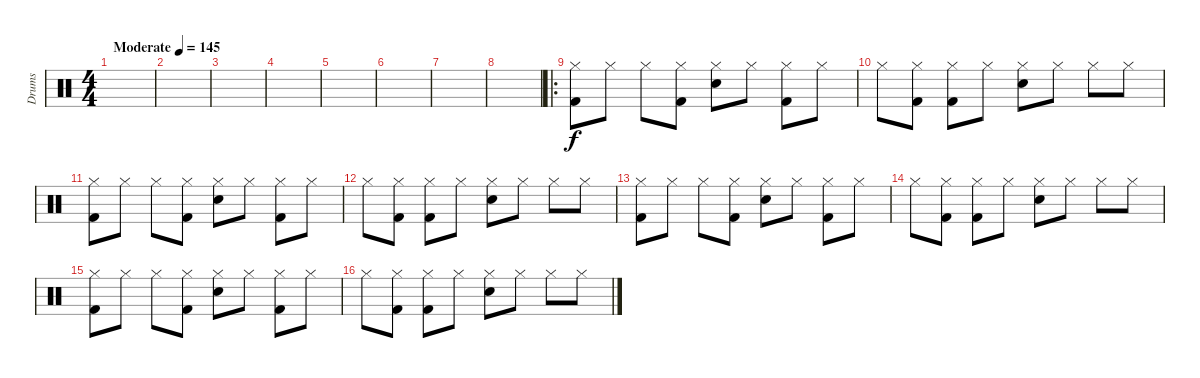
\track ("Drums" "Drums") {instrument percussion}
\staff {score}
\articulation defaults
\ts (4 4)
\tempo (145 "Moderate")
\clef neutral
\ks c
|
|
|
|
|
|
|
|
\ro
("Kick (hit) 2" "Hi-Hat (closed)").8 "Hi-Hat (closed)".8 "Hi-Hat (closed)".8 ("Kick (hit) 2" "Hi-Hat (closed)").8 ("Electric Snare (hit)" "Hi-Hat (closed)").8 "Hi-Hat (closed)".8 ("Kick (hit) 2" "Hi-Hat (closed)").8 "Hi-Hat (closed)".8 |
"Hi-Hat (closed)".8 ("Kick (hit) 2" "Hi-Hat (closed)").8 ("Kick (hit) 2" "Hi-Hat (closed)").8 "Hi-Hat (closed)".8 ("Electric Snare (hit)" "Hi-Hat (closed)").8 "Hi-Hat (closed)".8 "Hi-Hat (closed)".8 "Hi-Hat (closed)".8 |
("Kick (hit) 2" "Hi-Hat (closed)").8 "Hi-Hat (closed)".8 "Hi-Hat (closed)".8 ("Kick (hit) 2" "Hi-Hat (closed)").8 ("Electric Snare (hit)" "Hi-Hat (closed)").8 "Hi-Hat (closed)".8 ("Kick (hit) 2" "Hi-Hat (closed)").8 "Hi-Hat (closed)".8 |
"Hi-Hat (closed)".8 ("Kick (hit) 2" "Hi-Hat (closed)").8 ("Kick (hit) 2" "Hi-Hat (closed)").8 "Hi-Hat (closed)".8 ("Electric Snare (hit)" "Hi-Hat (closed)").8 "Hi-Hat (closed)".8 "Hi-Hat (closed)".8 "Hi-Hat (closed)".8 |
("Kick (hit) 2" "Hi-Hat (closed)").8 "Hi-Hat (closed)".8 "Hi-Hat (closed)".8 ("Kick (hit) 2" "Hi-Hat (closed)").8 ("Electric Snare (hit)" "Hi-Hat (closed)").8 "Hi-Hat (closed)".8 ("Kick (hit) 2" "Hi-Hat (closed)").8 "Hi-Hat (closed)".8 |
"Hi-Hat (closed)".8 ("Kick (hit) 2" "Hi-Hat (closed)").8 ("Kick (hit) 2" "Hi-Hat (closed)").8 "Hi-Hat (closed)".8 ("Electric Snare (hit)" "Hi-Hat (closed)").8 "Hi-Hat (closed)".8 "Hi-Hat (closed)".8 "Hi-Hat (closed)".8 |
("Kick (hit) 2" "Hi-Hat (closed)").8 "Hi-Hat (closed)".8 "Hi-Hat (closed)".8 ("Kick (hit) 2" "Hi-Hat (closed)").8 ("Electric Snare (hit)" "Hi-Hat (closed)").8 "Hi-Hat (closed)".8 ("Kick (hit) 2" "Hi-Hat (closed)").8 "Hi-Hat (closed)".8 |
"Hi-Hat (closed)".8 ("Kick (hit) 2" "Hi-Hat (closed)").8 ("Kick (hit) 2" "Hi-Hat (closed)").8 "Hi-Hat (closed)".8 ("Electric Snare (hit)" "Hi-Hat (closed)").8 "Hi-Hat (closed)".8 "Hi-Hat (closed)".8 "Hi-Hat (closed)".8
